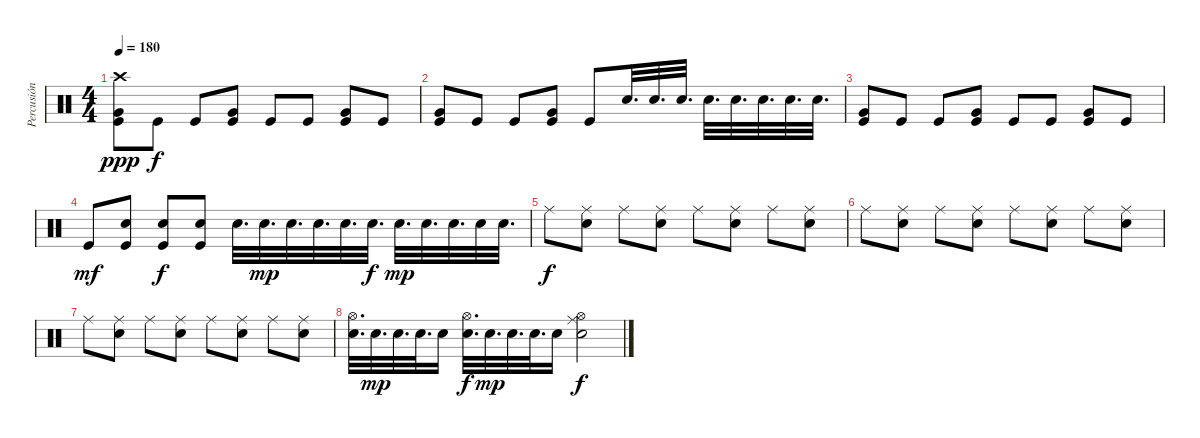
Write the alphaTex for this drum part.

\track ("Percusión" "Percusión") {instrument percussion}
\staff {score}
\articulation defaults
\ts (4 4)
\tempo 180
\clef neutral
\ks c
("Kick (hit)" "Very Low Tom (hit)" "Crash high (hit)").8{dy ppp} "Kick (hit)".8{dy f} "Kick (hit)".8 ("Kick (hit)" "Very Low Tom (hit)").8 "Kick (hit)".8 "Kick (hit)".8 ("Kick (hit)" "Very Low Tom (hit)").8 "Kick (hit)".8 |
("Kick (hit)" "Very Low Tom (hit)").8 "Kick (hit)".8 "Kick (hit)".8 ("Kick (hit)" "Very Low Tom (hit)").8 "Kick (hit)".8 "Snare (hit) 2".32{d} "Snare (hit) 2".32{d} "Snare (hit) 2".32{d} "Snare (hit) 2".32{d} "Snare (hit) 2".32{d} "Snare (hit) 2".32{d} "Snare (hit) 2".32{d} "Snare (hit) 2".32{d} |
("Kick (hit)" "Very Low Tom (hit)").8 "Kick (hit)".8 "Kick (hit)".8 ("Kick (hit)" "Very Low Tom (hit)").8 "Kick (hit)".8 "Kick (hit)".8 ("Kick (hit)" "Very Low Tom (hit)").8 "Kick (hit)".8 |
"Kick (hit)".8{dy mf} ("Kick (hit)" "Snare (hit) 2").8 ("Kick (hit)" "Snare (hit) 2").8{dy f} ("Kick (hit)" "Snare (hit) 2").8 "Snare (hit) 2".32{d} "Snare (hit) 2".32{d dy mp} "Snare (hit) 2".32{d} "Snare (hit) 2".32{d} "Snare (hit) 2".32{d} "Snare (hit) 2".32{d dy f} "Snare (hit) 2".32{d dy mp} "Snare (hit) 2".32{d} "Snare (hit) 2".32{d} "Snare (hit) 2".32 "Snare (hit) 2".32{d} |
"Ride (middle)".8{dy f} ("Ride (middle)" "Snare (hit) 2").8 "Ride (middle)".8 ("Ride (middle)" "Snare (hit) 2").8 "Ride (middle)".8 ("Ride (middle)" "Snare (hit) 2").8 "Ride (middle)".8 ("Ride (middle)" "Snare (hit) 2").8 |
"Ride (middle)".8 ("Ride (middle)" "Snare (hit) 2").8 "Ride (middle)".8 ("Ride (middle)" "Snare (hit) 2").8 "Ride (middle)".8 ("Ride (middle)" "Snare (hit) 2").8 "Ride (middle)".8 ("Ride (middle)" "Snare (hit) 2").8 |
"Ride (middle)".8 ("Ride (middle)" "Snare (hit) 2").8 "Ride (middle)".8 ("Ride (middle)" "Snare (hit) 2").8 "Ride (middle)".8 ("Ride (middle)" "Snare (hit) 2").8 "Ride (middle)".8 ("Ride (middle)" "Snare (hit) 2").8 |
("Snare (hit) 2" "Hi-Hat (open)").32{d} "Snare (hit) 2".32{d dy mp} "Snare (hit) 2".32{d} "Snare (hit) 2".32{d} "Snare (hit) 2".16 ("Snare (hit) 2" "Hi-Hat (open)").32{d dy f} "Snare (hit) 2".32{d dy mp} "Snare (hit) 2".32{d} "Snare (hit) 2".32{d} "Snare (hit) 2".16 ("Snare (hit) 2" "Hi-Hat (open)" "Ride (middle)").2{dy f}
